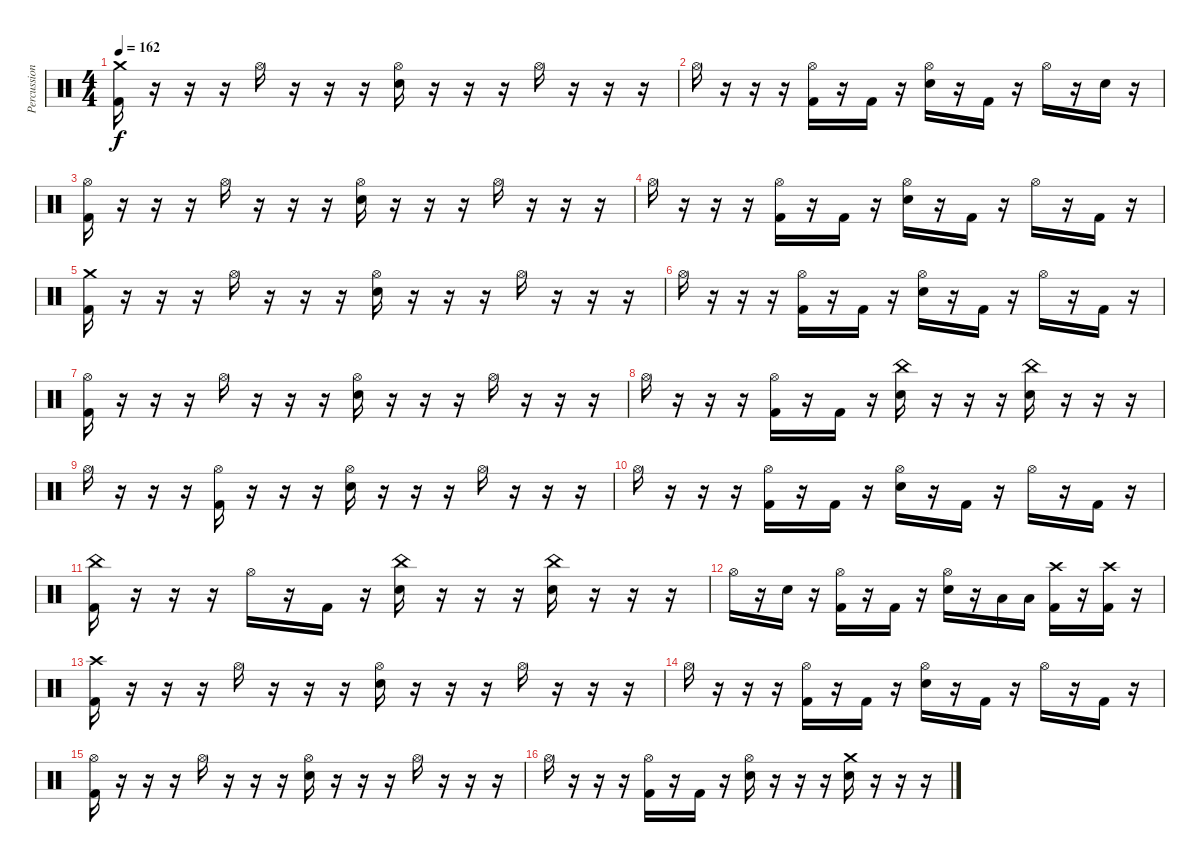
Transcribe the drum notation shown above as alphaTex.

\track ("Percussion" "Percussion") {instrument percussion}
\staff {score}
\articulation defaults
\ts (4 4)
\tempo 162
\clef neutral
\ks c
("Crash medium (hit)" "Kick (hit) 2").16{dy f} r.16 r.16 r.16 "Hi-Hat (open)".16 r.16 r.16 r.16 ("Hi-Hat (open)" "Electric Snare (hit)").16 r.16 r.16 r.16 "Hi-Hat (open)".16 r.16 r.16 r.16 |
"Hi-Hat (open)".16 r.16 r.16 r.16 ("Hi-Hat (open)" "Kick (hit) 2").16 r.16 "Kick (hit) 2".16 r.16 ("Hi-Hat (open)" "Electric Snare (hit)").16 r.16 "Kick (hit) 2".16 r.16 "Hi-Hat (open)".16 r.16 "Electric Snare (hit)".16 r.16 |
("Hi-Hat (open)" "Kick (hit) 2").16 r.16 r.16 r.16 "Hi-Hat (open)".16 r.16 r.16 r.16 ("Hi-Hat (open)" "Electric Snare (hit)").16 r.16 r.16 r.16 "Hi-Hat (open)".16 r.16 r.16 r.16 |
"Hi-Hat (open)".16 r.16 r.16 r.16 ("Hi-Hat (open)" "Kick (hit) 2").16 r.16 "Kick (hit) 2".16 r.16 ("Hi-Hat (open)" "Electric Snare (hit)").16 r.16 "Kick (hit) 2".16 r.16 "Hi-Hat (open)".16 r.16 "Kick (hit) 2".16 r.16 |
("Crash medium (hit)" "Kick (hit) 2").16 r.16 r.16 r.16 "Hi-Hat (open)".16 r.16 r.16 r.16 ("Hi-Hat (open)" "Electric Snare (hit)").16 r.16 r.16 r.16 "Hi-Hat (open)".16 r.16 r.16 r.16 |
"Hi-Hat (open)".16 r.16 r.16 r.16 ("Hi-Hat (open)" "Kick (hit) 2").16 r.16 "Kick (hit) 2".16 r.16 ("Hi-Hat (open)" "Electric Snare (hit)").16 r.16 "Kick (hit) 2".16 r.16 "Hi-Hat (open)".16 r.16 "Kick (hit) 2".16 r.16 |
("Hi-Hat (open)" "Kick (hit) 2").16 r.16 r.16 r.16 "Hi-Hat (open)".16 r.16 r.16 r.16 ("Hi-Hat (open)" "Electric Snare (hit)").16 r.16 r.16 r.16 "Hi-Hat (open)".16 r.16 r.16 r.16 |
"Hi-Hat (open)".16 r.16 r.16 r.16 ("Hi-Hat (open)" "Kick (hit) 2").16 r.16 "Kick (hit) 2".16 r.16 ("China (hit)" "Electric Snare (hit)").16 r.16 r.16 r.16 ("China (hit)" "Electric Snare (hit)").16 r.16 r.16 r.16 |
"Hi-Hat (open)".16 r.16 r.16 r.16 ("Hi-Hat (open)" "Kick (hit) 2").16 r.16 r.16 r.16 ("Hi-Hat (open)" "Electric Snare (hit)").16 r.16 r.16 r.16 "Hi-Hat (open)".16 r.16 r.16 r.16 |
"Hi-Hat (open)".16 r.16 r.16 r.16 ("Hi-Hat (open)" "Kick (hit) 2").16 r.16 "Kick (hit) 2".16 r.16 ("Hi-Hat (open)" "Electric Snare (hit)").16 r.16 "Kick (hit) 2".16 r.16 "Hi-Hat (open)".16 r.16 "Kick (hit) 2".16 r.16 |
("China (hit)" "Kick (hit) 2").16 r.16 r.16 r.16 "Hi-Hat (open)".16 r.16 "Kick (hit) 2".16 r.16 ("China (hit)" "Electric Snare (hit)").16 r.16 r.16 r.16 ("China (hit)" "Electric Snare (hit)").16 r.16 r.16 r.16 |
"Hi-Hat (open)".16 r.16 "Electric Snare (hit)".16 r.16 ("Hi-Hat (open)" "Kick (hit) 2").16 r.16 "Kick (hit) 2".16 r.16 ("Hi-Hat (open)" "Electric Snare (hit)").16 r.16 "Low Tom (hit)".16 "Low Tom (hit)".16 ("Crash high (hit)" "Kick (hit) 2").16 r.16 ("Crash high (hit)" "Kick (hit) 2").16 r.16 |
("Crash high (hit)" "Kick (hit) 2").16 r.16 r.16 r.16 "Hi-Hat (open)".16 r.16 r.16 r.16 ("Hi-Hat (open)" "Electric Snare (hit)").16 r.16 r.16 r.16 "Hi-Hat (open)".16 r.16 r.16 r.16 |
"Hi-Hat (open)".16 r.16 r.16 r.16 ("Hi-Hat (open)" "Kick (hit) 2").16 r.16 "Kick (hit) 2".16 r.16 ("Hi-Hat (open)" "Electric Snare (hit)").16 r.16 "Kick (hit) 2".16 r.16 "Hi-Hat (open)".16 r.16 "Kick (hit) 2".16 r.16 |
("Hi-Hat (open)" "Kick (hit) 2").16 r.16 r.16 r.16 "Hi-Hat (open)".16 r.16 r.16 r.16 ("Hi-Hat (open)" "Electric Snare (hit)").16 r.16 r.16 r.16 "Hi-Hat (open)".16 r.16 r.16 r.16 |
"Hi-Hat (open)".16 r.16 r.16 r.16 ("Hi-Hat (open)" "Kick (hit) 2").16 r.16 "Kick (hit) 2".16 r.16 ("Hi-Hat (open)" "Electric Snare (hit)").16 r.16 r.16 r.16 ("Crash medium (hit)" "Electric Snare (hit)").16 r.16 r.16 r.16
